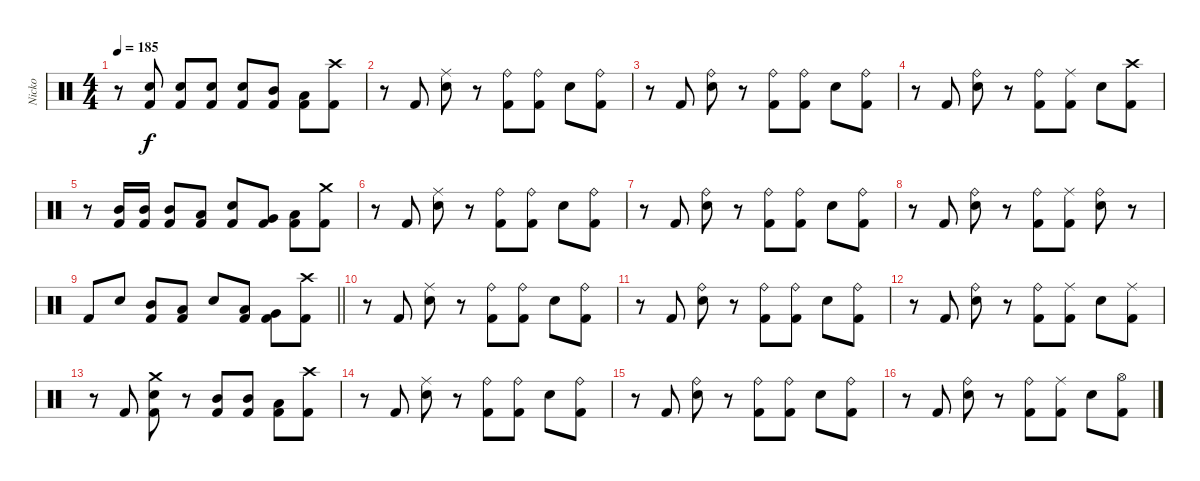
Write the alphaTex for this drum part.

\track ("Nicko" "Nicko") {instrument percussion}
\staff {score}
\articulation defaults
\ts (4 4)
\tempo 185
\clef neutral
\ks c
r.8{dy f} ("Snare (hit) 2" "Kick (hit) 2").8 ("Snare (hit) 2" "Kick (hit) 2").8 ("Snare (hit) 2" "Kick (hit) 2").8 ("Snare (hit) 2" "Kick (hit) 2").8 ("Mid Tom (hit)" "Kick (hit) 2").8 ("Low Tom (hit)" "Kick (hit) 2").8 ("Crash high (hit)" "Kick (hit) 2").8 |
r.8 "Kick (hit) 2".8 ("Ride (middle)" "Snare (hit) 2").8 r.8 ("Ride (bell)" "Kick (hit) 2").8 ("Ride (bell)" "Kick (hit) 2").8 "Snare (hit) 2".8 ("Ride (bell)" "Kick (hit) 2").8 |
r.8 "Kick (hit) 2".8 ("Ride (bell)" "Snare (hit) 2").8 r.8 ("Ride (bell)" "Kick (hit) 2").8 ("Ride (bell)" "Kick (hit) 2").8 "Snare (hit) 2".8 ("Ride (bell)" "Kick (hit) 2").8 |
r.8 "Kick (hit) 2".8 ("Ride (bell)" "Snare (hit) 2").8 r.8 ("Ride (bell)" "Kick (hit) 2").8 ("Ride (middle)" "Kick (hit) 2").8 "Snare (hit) 2".8 ("Crash high (hit)" "Kick (hit) 2").8 |
r.8 ("Mid Tom (hit)" "Kick (hit) 2").16 ("Mid Tom (hit)" "Kick (hit) 2").16 ("Mid Tom (hit)" "Kick (hit) 2").8 ("Low Tom (hit)" "Kick (hit) 2").8 ("Snare (hit) 2" "Kick (hit) 2").8 ("Very Low Tom (hit)" "Kick (hit) 2").8 ("Low Floor Tom (hit)" "Kick (hit) 2").8 ("Crash medium (hit)" "Kick (hit) 2").8 |
r.8 "Kick (hit) 2".8 ("Ride (middle)" "Snare (hit) 2").8 r.8 ("Ride (bell)" "Kick (hit) 2").8 ("Ride (bell)" "Kick (hit) 2").8 "Snare (hit) 2".8 ("Ride (bell)" "Kick (hit) 2").8 |
r.8 "Kick (hit) 2".8 ("Ride (bell)" "Snare (hit) 2").8 r.8 ("Ride (bell)" "Kick (hit) 2").8 ("Ride (bell)" "Kick (hit) 2").8 "Snare (hit) 2".8 ("Ride (bell)" "Kick (hit) 2").8 |
r.8 "Kick (hit) 2".8 ("Ride (bell)" "Snare (hit) 2").8 r.8 ("Ride (bell)" "Kick (hit) 2").8 ("Ride (middle)" "Kick (hit) 2").8 ("Ride (bell)" "Snare (hit) 2").8 r.8 |
\barLineRight lightlight "Kick (hit) 2".8 "Snare (hit) 2".8
("Mid Tom (hit)" "Kick (hit) 2").8 ("Low Tom (hit)" "Kick (hit) 2").8 "Snare (hit) 2".8 ("Low Tom (hit)" "Kick (hit) 2").8 ("Very Low Tom (hit)" "Kick (hit) 2").8 ("Crash high (hit)" "Kick (hit) 2").8 |
r.8 "Kick (hit) 2".8 ("Ride (middle)" "Snare (hit) 2").8 r.8 ("Ride (bell)" "Kick (hit) 2").8 ("Ride (bell)" "Kick (hit) 2").8 "Snare (hit) 2".8 ("Ride (bell)" "Kick (hit) 2").8 |
r.8 "Kick (hit) 2".8 ("Ride (bell)" "Snare (hit) 2").8 r.8 ("Ride (bell)" "Kick (hit) 2").8 ("Ride (bell)" "Kick (hit) 2").8 "Snare (hit) 2".8 ("Ride (bell)" "Kick (hit) 2").8 |
r.8 "Kick (hit) 2".8 ("Ride (bell)" "Snare (hit) 2").8 r.8 ("Ride (bell)" "Kick (hit) 2").8 ("Ride (middle)" "Kick (hit) 2").8 "Snare (hit) 2".8 ("Ride (middle)" "Kick (hit) 2").8 |
r.8 "Kick (hit) 2".8 ("Crash medium (hit)" "Snare (hit) 2" "Kick (hit) 2").8 r.8 ("Mid Tom (hit)" "Kick (hit) 2").8 ("Mid Tom (hit)" "Kick (hit) 2").8 ("Low Tom (hit)" "Kick (hit) 2").8 ("Crash high (hit)" "Kick (hit) 2").8 |
r.8 "Kick (hit) 2".8 ("Ride (middle)" "Snare (hit) 2").8 r.8 ("Ride (bell)" "Kick (hit) 2").8 ("Ride (bell)" "Kick (hit) 2").8 "Snare (hit) 2".8 ("Ride (bell)" "Kick (hit) 2").8 |
r.8 "Kick (hit) 2".8 ("Ride (bell)" "Snare (hit) 2").8 r.8 ("Ride (bell)" "Kick (hit) 2").8 ("Ride (bell)" "Kick (hit) 2").8 "Snare (hit) 2".8 ("Ride (bell)" "Kick (hit) 2").8 |
r.8 "Kick (hit) 2".8 ("Ride (bell)" "Snare (hit) 2").8 r.8 ("Ride (bell)" "Kick (hit) 2").8 ("Ride (middle)" "Kick (hit) 2").8 "Snare (hit) 2".8 ("Hi-Hat (open)" "Kick (hit) 2").8
